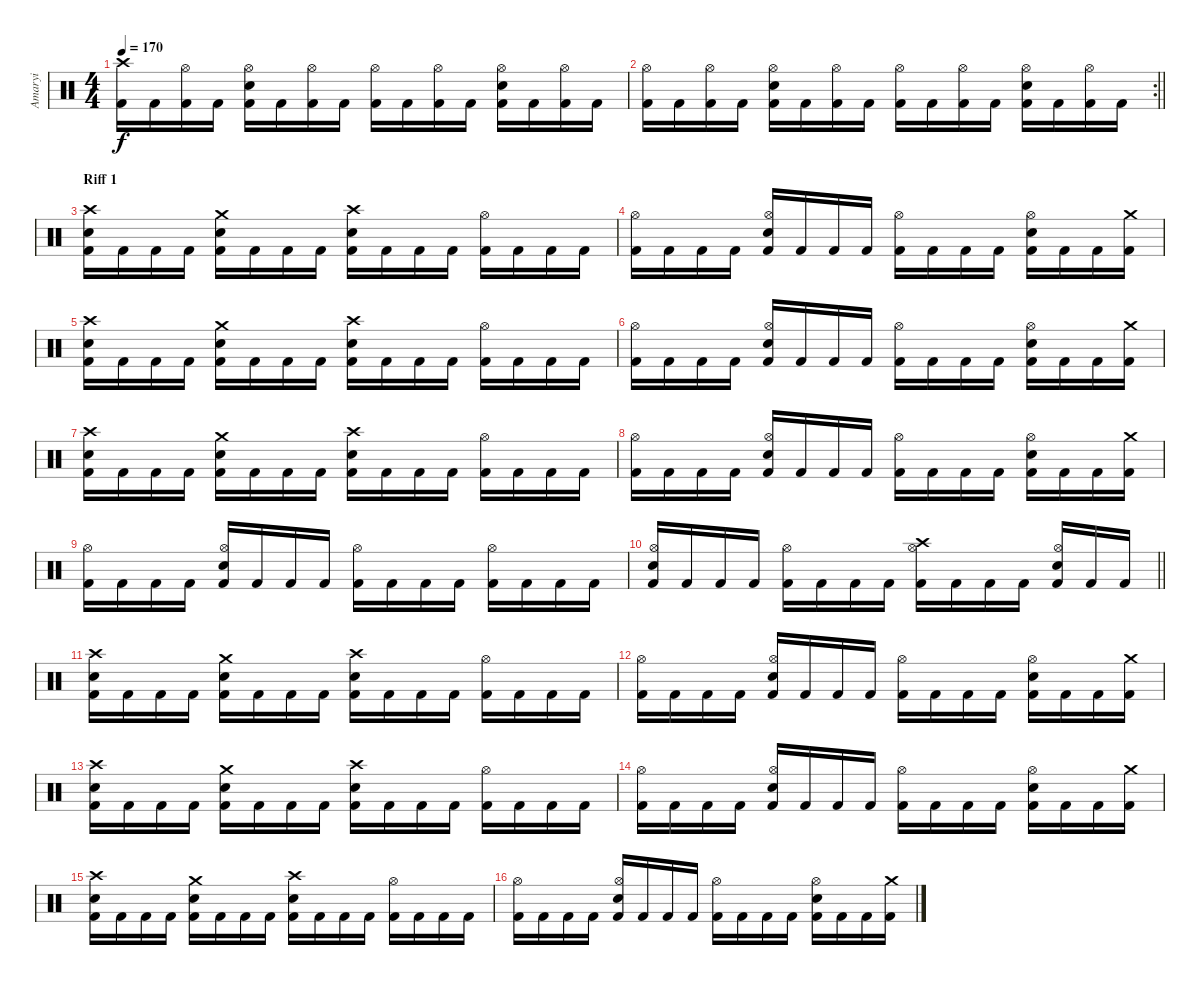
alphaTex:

\track ("Amaryi" "Amaryi") {instrument percussion}
\staff {score}
\articulation defaults
\ts (4 4)
\tempo 170
\clef neutral
\ks c
("Crash high (hit)" "Kick (hit) 2").16{dy f} "Kick (hit) 2".16 ("Hi-Hat (open)" "Kick (hit) 2").16 "Kick (hit) 2".16 ("Hi-Hat (open)" "Electric Snare (hit)" "Kick (hit) 2").16 "Kick (hit) 2".16 ("Hi-Hat (open)" "Kick (hit) 2").16 "Kick (hit) 2".16 ("Hi-Hat (open)" "Kick (hit) 2").16 "Kick (hit) 2".16 ("Hi-Hat (open)" "Kick (hit) 2").16 "Kick (hit) 2".16 ("Hi-Hat (open)" "Electric Snare (hit)" "Kick (hit) 2").16 "Kick (hit) 2".16 ("Hi-Hat (open)" "Kick (hit) 2").16 "Kick (hit) 2".16 |
\rc 2
\barLineRight lightlight
("Hi-Hat (open)" "Kick (hit) 2").16 "Kick (hit) 2".16 ("Hi-Hat (open)" "Kick (hit) 2").16 "Kick (hit) 2".16 ("Hi-Hat (open)" "Electric Snare (hit)" "Kick (hit) 2").16 "Kick (hit) 2".16 ("Hi-Hat (open)" "Kick (hit) 2").16 "Kick (hit) 2".16 ("Hi-Hat (open)" "Kick (hit) 2").16 "Kick (hit) 2".16 ("Hi-Hat (open)" "Kick (hit) 2").16 "Kick (hit) 2".16 ("Hi-Hat (open)" "Electric Snare (hit)" "Kick (hit) 2").16 "Kick (hit) 2".16 ("Hi-Hat (open)" "Kick (hit) 2").16 "Kick (hit) 2".16 |
\section ("" "Riff 1")
("Crash high (hit)" "Electric Snare (hit)" "Kick (hit) 2").16 "Kick (hit) 2".16 "Kick (hit) 2".16 "Kick (hit) 2".16 ("Crash medium (hit)" "Electric Snare (hit)" "Kick (hit) 2").16 "Kick (hit) 2".16 "Kick (hit) 2".16 "Kick (hit) 2".16 ("Crash high (hit)" "Electric Snare (hit)" "Kick (hit) 2").16 "Kick (hit) 2".16 "Kick (hit) 2".16 "Kick (hit) 2".16 ("Hi-Hat (open)" "Kick (hit) 2").16 "Kick (hit) 2".16 "Kick (hit) 2".16 "Kick (hit) 2".16 |
("Hi-Hat (open)" "Kick (hit) 2").16 "Kick (hit) 2".16 "Kick (hit) 2".16 "Kick (hit) 2".16 ("Hi-Hat (open)" "Electric Snare (hit)" "Kick (hit) 2").16 "Kick (hit) 2".16 "Kick (hit) 2".16 "Kick (hit) 2".16 ("Hi-Hat (open)" "Kick (hit) 2").16 "Kick (hit) 2".16 "Kick (hit) 2".16 "Kick (hit) 2".16 ("Hi-Hat (open)" "Electric Snare (hit)" "Kick (hit) 2").16 "Kick (hit) 2".16 "Kick (hit) 2".16 ("Crash medium (hit)" "Kick (hit) 2").16 |
("Crash high (hit)" "Electric Snare (hit)" "Kick (hit) 2").16 "Kick (hit) 2".16 "Kick (hit) 2".16 "Kick (hit) 2".16 ("Crash medium (hit)" "Electric Snare (hit)" "Kick (hit) 2").16 "Kick (hit) 2".16 "Kick (hit) 2".16 "Kick (hit) 2".16 ("Crash high (hit)" "Electric Snare (hit)" "Kick (hit) 2").16 "Kick (hit) 2".16 "Kick (hit) 2".16 "Kick (hit) 2".16 ("Hi-Hat (open)" "Kick (hit) 2").16 "Kick (hit) 2".16 "Kick (hit) 2".16 "Kick (hit) 2".16 |
("Hi-Hat (open)" "Kick (hit) 2").16 "Kick (hit) 2".16 "Kick (hit) 2".16 "Kick (hit) 2".16 ("Hi-Hat (open)" "Electric Snare (hit)" "Kick (hit) 2").16 "Kick (hit) 2".16 "Kick (hit) 2".16 "Kick (hit) 2".16 ("Hi-Hat (open)" "Kick (hit) 2").16 "Kick (hit) 2".16 "Kick (hit) 2".16 "Kick (hit) 2".16 ("Hi-Hat (open)" "Electric Snare (hit)" "Kick (hit) 2").16 "Kick (hit) 2".16 "Kick (hit) 2".16 ("Crash medium (hit)" "Kick (hit) 2").16 |
("Crash high (hit)" "Electric Snare (hit)" "Kick (hit) 2").16 "Kick (hit) 2".16 "Kick (hit) 2".16 "Kick (hit) 2".16 ("Crash medium (hit)" "Electric Snare (hit)" "Kick (hit) 2").16 "Kick (hit) 2".16 "Kick (hit) 2".16 "Kick (hit) 2".16 ("Crash high (hit)" "Electric Snare (hit)" "Kick (hit) 2").16 "Kick (hit) 2".16 "Kick (hit) 2".16 "Kick (hit) 2".16 ("Hi-Hat (open)" "Kick (hit) 2").16 "Kick (hit) 2".16 "Kick (hit) 2".16 "Kick (hit) 2".16 |
("Hi-Hat (open)" "Kick (hit) 2").16 "Kick (hit) 2".16 "Kick (hit) 2".16 "Kick (hit) 2".16 ("Hi-Hat (open)" "Electric Snare (hit)" "Kick (hit) 2").16 "Kick (hit) 2".16 "Kick (hit) 2".16 "Kick (hit) 2".16 ("Hi-Hat (open)" "Kick (hit) 2").16 "Kick (hit) 2".16 "Kick (hit) 2".16 "Kick (hit) 2".16 ("Hi-Hat (open)" "Electric Snare (hit)" "Kick (hit) 2").16 "Kick (hit) 2".16 "Kick (hit) 2".16 ("Crash medium (hit)" "Kick (hit) 2").16 |
("Hi-Hat (open)" "Kick (hit) 2").16 "Kick (hit) 2".16 "Kick (hit) 2".16 "Kick (hit) 2".16 ("Hi-Hat (open)" "Electric Snare (hit)" "Kick (hit) 2").16 "Kick (hit) 2".16 "Kick (hit) 2".16 "Kick (hit) 2".16 ("Hi-Hat (open)" "Kick (hit) 2").16 "Kick (hit) 2".16 "Kick (hit) 2".16 "Kick (hit) 2".16 ("Hi-Hat (open)" "Kick (hit) 2").16 "Kick (hit) 2".16 "Kick (hit) 2".16 "Kick (hit) 2".16 |
\barLineRight lightlight
("Hi-Hat (open)" "Electric Snare (hit)" "Kick (hit) 2").16 "Kick (hit) 2".16 "Kick (hit) 2".16 "Kick (hit) 2".16 ("Hi-Hat (open)" "Kick (hit) 2").16 "Kick (hit) 2".16 "Kick (hit) 2".16 "Kick (hit) 2".16 ("Crash high (hit)" "Hi-Hat (open)" "Kick (hit) 2").16 "Kick (hit) 2".16 "Kick (hit) 2".16 "Kick (hit) 2".16 ("Hi-Hat (open)" "Electric Snare (hit)" "Kick (hit) 2").16 "Kick (hit) 2".16 "Kick (hit) 2".16 |
("Crash high (hit)" "Electric Snare (hit)" "Kick (hit) 2").16 "Kick (hit) 2".16 "Kick (hit) 2".16 "Kick (hit) 2".16 ("Crash medium (hit)" "Electric Snare (hit)" "Kick (hit) 2").16 "Kick (hit) 2".16 "Kick (hit) 2".16 "Kick (hit) 2".16 ("Crash high (hit)" "Electric Snare (hit)" "Kick (hit) 2").16 "Kick (hit) 2".16 "Kick (hit) 2".16 "Kick (hit) 2".16 ("Hi-Hat (open)" "Kick (hit) 2").16 "Kick (hit) 2".16 "Kick (hit) 2".16 "Kick (hit) 2".16 |
("Hi-Hat (open)" "Kick (hit) 2").16 "Kick (hit) 2".16 "Kick (hit) 2".16 "Kick (hit) 2".16 ("Hi-Hat (open)" "Electric Snare (hit)" "Kick (hit) 2").16 "Kick (hit) 2".16 "Kick (hit) 2".16 "Kick (hit) 2".16 ("Hi-Hat (open)" "Kick (hit) 2").16 "Kick (hit) 2".16 "Kick (hit) 2".16 "Kick (hit) 2".16 ("Hi-Hat (open)" "Electric Snare (hit)" "Kick (hit) 2").16 "Kick (hit) 2".16 "Kick (hit) 2".16 ("Crash medium (hit)" "Kick (hit) 2").16 |
("Crash high (hit)" "Electric Snare (hit)" "Kick (hit) 2").16 "Kick (hit) 2".16 "Kick (hit) 2".16 "Kick (hit) 2".16 ("Crash medium (hit)" "Electric Snare (hit)" "Kick (hit) 2").16 "Kick (hit) 2".16 "Kick (hit) 2".16 "Kick (hit) 2".16 ("Crash high (hit)" "Electric Snare (hit)" "Kick (hit) 2").16 "Kick (hit) 2".16 "Kick (hit) 2".16 "Kick (hit) 2".16 ("Hi-Hat (open)" "Kick (hit) 2").16 "Kick (hit) 2".16 "Kick (hit) 2".16 "Kick (hit) 2".16 |
("Hi-Hat (open)" "Kick (hit) 2").16 "Kick (hit) 2".16 "Kick (hit) 2".16 "Kick (hit) 2".16 ("Hi-Hat (open)" "Electric Snare (hit)" "Kick (hit) 2").16 "Kick (hit) 2".16 "Kick (hit) 2".16 "Kick (hit) 2".16 ("Hi-Hat (open)" "Kick (hit) 2").16 "Kick (hit) 2".16 "Kick (hit) 2".16 "Kick (hit) 2".16 ("Hi-Hat (open)" "Electric Snare (hit)" "Kick (hit) 2").16 "Kick (hit) 2".16 "Kick (hit) 2".16 ("Crash medium (hit)" "Kick (hit) 2").16 |
("Crash high (hit)" "Electric Snare (hit)" "Kick (hit) 2").16 "Kick (hit) 2".16 "Kick (hit) 2".16 "Kick (hit) 2".16 ("Crash medium (hit)" "Electric Snare (hit)" "Kick (hit) 2").16 "Kick (hit) 2".16 "Kick (hit) 2".16 "Kick (hit) 2".16 ("Crash high (hit)" "Electric Snare (hit)" "Kick (hit) 2").16 "Kick (hit) 2".16 "Kick (hit) 2".16 "Kick (hit) 2".16 ("Hi-Hat (open)" "Kick (hit) 2").16 "Kick (hit) 2".16 "Kick (hit) 2".16 "Kick (hit) 2".16 |
("Hi-Hat (open)" "Kick (hit) 2").16 "Kick (hit) 2".16 "Kick (hit) 2".16 "Kick (hit) 2".16 ("Hi-Hat (open)" "Electric Snare (hit)" "Kick (hit) 2").16 "Kick (hit) 2".16 "Kick (hit) 2".16 "Kick (hit) 2".16 ("Hi-Hat (open)" "Kick (hit) 2").16 "Kick (hit) 2".16 "Kick (hit) 2".16 "Kick (hit) 2".16 ("Hi-Hat (open)" "Electric Snare (hit)" "Kick (hit) 2").16 "Kick (hit) 2".16 "Kick (hit) 2".16 ("Crash medium (hit)" "Kick (hit) 2").16
